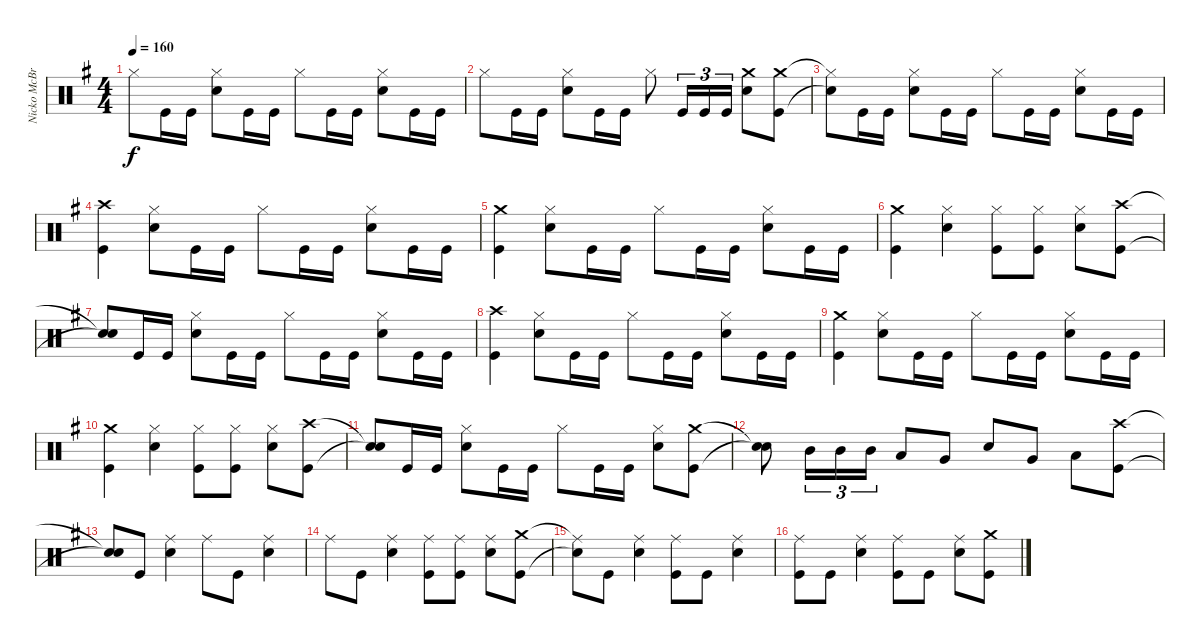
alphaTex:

\track ("Nicko McBrain" "Nicko McBr") {instrument percussion}
\staff {score}
\articulation defaults
\ts (4 4)
\tempo 160
\clef neutral
\ks g "Hi-Hat (closed)".8{dy f} "Kick (hit)".16 "Kick (hit)".16
("Electric Snare (hit)" "Hi-Hat (closed)").8 "Kick (hit)".16 "Kick (hit)".16 "Hi-Hat (closed)".8 "Kick (hit)".16 "Kick (hit)".16 ("Electric Snare (hit)" "Hi-Hat (closed)").8 "Kick (hit)".16 "Kick (hit)".16 |
"Hi-Hat (closed)".8 "Kick (hit)".16 "Kick (hit)".16 ("Electric Snare (hit)" "Hi-Hat (closed)").8 "Kick (hit)".16 "Kick (hit)".16 "Hi-Hat (closed)".8 "Kick (hit)".16{tu (3 2)} "Kick (hit)".16{tu (3 2)} "Kick (hit)".16{tu (3 2)} ("Electric Snare (hit)" "Crash medium (hit)").8 ("Kick (hit)" "Crash medium (hit)").8 |
("Snare (hit)"{t} "Hi-Hat (closed)"{t}).8 "Kick (hit)".16 "Kick (hit)".16 ("Electric Snare (hit)" "Hi-Hat (closed)").8 "Kick (hit)".16 "Kick (hit)".16 "Hi-Hat (closed)".8 "Kick (hit)".16 "Kick (hit)".16 ("Electric Snare (hit)" "Hi-Hat (closed)").8 "Kick (hit)".16 "Kick (hit)".16 |
("Kick (hit)" "Crash high (hit)").4 ("Electric Snare (hit)" "Hi-Hat (closed)").8 "Kick (hit)".16 "Kick (hit)".16 "Hi-Hat (closed)".8 "Kick (hit)".16 "Kick (hit)".16 ("Electric Snare (hit)" "Hi-Hat (closed)").8 "Kick (hit)".16 "Kick (hit)".16 |
("Kick (hit)" "Crash medium (hit)").4 ("Electric Snare (hit)" "Hi-Hat (closed)").8 "Kick (hit)".16 "Kick (hit)".16 "Hi-Hat (closed)".8 "Kick (hit)".16 "Kick (hit)".16 ("Electric Snare (hit)" "Hi-Hat (closed)").8 "Kick (hit)".16 "Kick (hit)".16 |
("Crash medium (hit)" "Kick (hit)").4 ("Electric Snare (hit)" "Hi-Hat (closed)").4 ("Kick (hit)" "Hi-Hat (closed)").8 ("Kick (hit)" "Hi-Hat (closed)").8 ("Electric Snare (hit)" "Hi-Hat (closed)").8 ("Kick (hit)" "Crash high (hit)").8 |
("Snare (hit)"{t} "Snare (hit)"{t}).8 "Kick (hit)".16 "Kick (hit)".16 ("Electric Snare (hit)" "Hi-Hat (closed)").8 "Kick (hit)".16 "Kick (hit)".16 "Hi-Hat (closed)".8 "Kick (hit)".16 "Kick (hit)".16 ("Electric Snare (hit)" "Hi-Hat (closed)").8 "Kick (hit)".16 "Kick (hit)".16 |
("Kick (hit)" "Crash high (hit)").4 ("Electric Snare (hit)" "Hi-Hat (closed)").8 "Kick (hit)".16 "Kick (hit)".16 "Hi-Hat (closed)".8 "Kick (hit)".16 "Kick (hit)".16 ("Electric Snare (hit)" "Hi-Hat (closed)").8 "Kick (hit)".16 "Kick (hit)".16 |
("Kick (hit)" "Crash medium (hit)").4 ("Electric Snare (hit)" "Hi-Hat (closed)").8 "Kick (hit)".16 "Kick (hit)".16 "Hi-Hat (closed)".8 "Kick (hit)".16 "Kick (hit)".16 ("Electric Snare (hit)" "Hi-Hat (closed)").8 "Kick (hit)".16 "Kick (hit)".16 |
("Crash medium (hit)" "Kick (hit)").4 ("Electric Snare (hit)" "Hi-Hat (closed)").4 ("Kick (hit)" "Hi-Hat (closed)").8 ("Kick (hit)" "Hi-Hat (closed)").8 ("Electric Snare (hit)" "Hi-Hat (closed)").8 ("Kick (hit)" "Crash high (hit)").8 |
("Snare (hit)"{t} "Snare (hit)"{t}).8 "Kick (hit)".16 "Kick (hit)".16 ("Electric Snare (hit)" "Hi-Hat (closed)").8 "Kick (hit)".16 "Kick (hit)".16 "Hi-Hat (closed)".8 "Kick (hit)".16 "Kick (hit)".16 ("Electric Snare (hit)" "Hi-Hat (closed)").8 ("Kick (hit)" "Crash medium (hit)").8 |
("Snare (hit)"{t} "Snare (hit)"{t}).8 "Mid Tom (hit)".16{tu (3 2)} "Mid Tom (hit)".16{tu (3 2)} "Mid Tom (hit)".16{tu (3 2)} "Low Tom (hit)".8 "Very Low Tom (hit)".8 "Electric Snare (hit)".8 "Very Low Tom (hit)".8 "Low Floor Tom (hit)".8 ("Kick (hit)" "Crash high (hit)").8 |
("Snare (hit)"{t} "Snare (hit)"{t}).8 "Kick (hit)".8 ("Electric Snare (hit)" "Ride (middle)").4 "Ride (middle)".8 "Kick (hit)".8 ("Electric Snare (hit)" "Ride (middle)").4 |
"Ride (middle)".8 "Kick (hit)".8 ("Electric Snare (hit)" "Ride (middle)").4 ("Kick (hit)" "Ride (middle)").8 ("Kick (hit)" "Ride (middle)").8 ("Electric Snare (hit)" "Ride (middle)").8 ("Kick (hit)" "Crash medium (hit)").8 |
("Snare (hit)"{t} "Ride (middle)"{t}).8 "Kick (hit)".8 ("Electric Snare (hit)" "Ride (middle)").4 ("Kick (hit)" "Ride (middle)").8 "Kick (hit)".8 ("Electric Snare (hit)" "Ride (middle)").4 |
("Kick (hit)" "Ride (middle)").8 "Kick (hit)".8 ("Electric Snare (hit)" "Ride (middle)").4 ("Kick (hit)" "Ride (middle)").8 "Kick (hit)".8 ("Electric Snare (hit)" "Ride (middle)").8 ("Kick (hit)" "Crash medium (hit)").8
